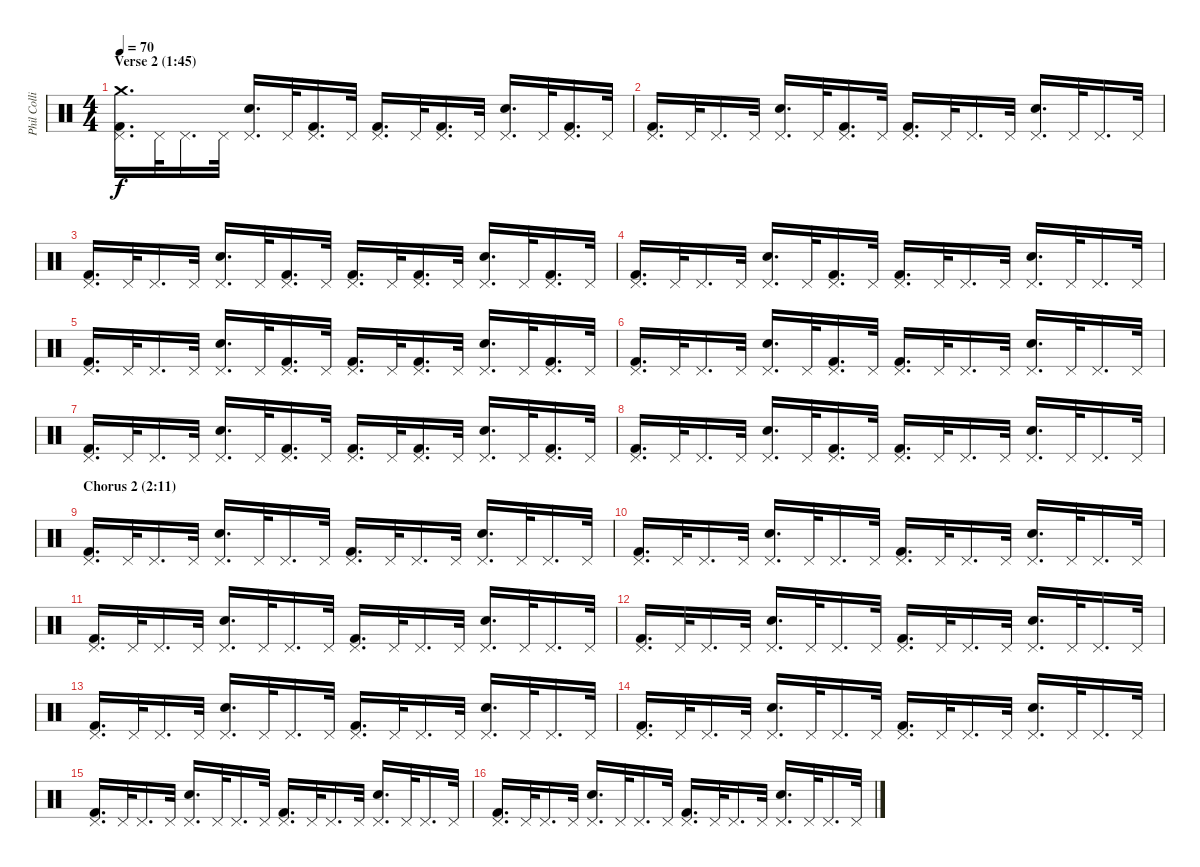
\track ("Phil Collins (drums)" "Phil Colli") {instrument percussion}
\staff {score}
\articulation defaults
\ts (4 4)
\section ("" "Verse 2 (1:45)")
\tempo 70
\clef neutral
\ks c
("Crash medium (hit)" "Pedal Hi-Hat (hit)" "Kick (hit) 2").16{d dy f} "Pedal Hi-Hat (hit)".32 "Pedal Hi-Hat (hit)".16{d} "Pedal Hi-Hat (hit)".32 ("Pedal Hi-Hat (hit)" "Electric Snare (hit)").16{d} "Pedal Hi-Hat (hit)".32 ("Pedal Hi-Hat (hit)" "Kick (hit) 2").16{d} "Pedal Hi-Hat (hit)".32 ("Pedal Hi-Hat (hit)" "Kick (hit) 2").16{d} "Pedal Hi-Hat (hit)".32 ("Pedal Hi-Hat (hit)" "Kick (hit) 2").16{d} "Pedal Hi-Hat (hit)".32 ("Pedal Hi-Hat (hit)" "Electric Snare (hit)").16{d} "Pedal Hi-Hat (hit)".32 ("Pedal Hi-Hat (hit)" "Kick (hit) 2").16{d} "Pedal Hi-Hat (hit)".32 |
("Pedal Hi-Hat (hit)" "Kick (hit) 2").16{d} "Pedal Hi-Hat (hit)".32 "Pedal Hi-Hat (hit)".16{d} "Pedal Hi-Hat (hit)".32 ("Pedal Hi-Hat (hit)" "Electric Snare (hit)").16{d} "Pedal Hi-Hat (hit)".32 ("Pedal Hi-Hat (hit)" "Kick (hit) 2").16{d} "Pedal Hi-Hat (hit)".32 ("Pedal Hi-Hat (hit)" "Kick (hit) 2").16{d} "Pedal Hi-Hat (hit)".32 "Pedal Hi-Hat (hit)".16{d} "Pedal Hi-Hat (hit)".32 ("Pedal Hi-Hat (hit)" "Electric Snare (hit)").16{d} "Pedal Hi-Hat (hit)".32 "Pedal Hi-Hat (hit)".16{d} "Pedal Hi-Hat (hit)".32 |
("Pedal Hi-Hat (hit)" "Kick (hit) 2").16{d} "Pedal Hi-Hat (hit)".32 "Pedal Hi-Hat (hit)".16{d} "Pedal Hi-Hat (hit)".32 ("Pedal Hi-Hat (hit)" "Electric Snare (hit)").16{d} "Pedal Hi-Hat (hit)".32 ("Pedal Hi-Hat (hit)" "Kick (hit) 2").16{d} "Pedal Hi-Hat (hit)".32 ("Pedal Hi-Hat (hit)" "Kick (hit) 2").16{d} "Pedal Hi-Hat (hit)".32 ("Pedal Hi-Hat (hit)" "Kick (hit) 2").16{d} "Pedal Hi-Hat (hit)".32 ("Pedal Hi-Hat (hit)" "Electric Snare (hit)").16{d} "Pedal Hi-Hat (hit)".32 ("Pedal Hi-Hat (hit)" "Kick (hit) 2").16{d} "Pedal Hi-Hat (hit)".32 |
("Pedal Hi-Hat (hit)" "Kick (hit) 2").16{d} "Pedal Hi-Hat (hit)".32 "Pedal Hi-Hat (hit)".16{d} "Pedal Hi-Hat (hit)".32 ("Pedal Hi-Hat (hit)" "Electric Snare (hit)").16{d} "Pedal Hi-Hat (hit)".32 ("Pedal Hi-Hat (hit)" "Kick (hit) 2").16{d} "Pedal Hi-Hat (hit)".32 ("Pedal Hi-Hat (hit)" "Kick (hit) 2").16{d} "Pedal Hi-Hat (hit)".32 "Pedal Hi-Hat (hit)".16{d} "Pedal Hi-Hat (hit)".32 ("Pedal Hi-Hat (hit)" "Electric Snare (hit)").16{d} "Pedal Hi-Hat (hit)".32 "Pedal Hi-Hat (hit)".16{d} "Pedal Hi-Hat (hit)".32 |
("Pedal Hi-Hat (hit)" "Kick (hit) 2").16{d} "Pedal Hi-Hat (hit)".32 "Pedal Hi-Hat (hit)".16{d} "Pedal Hi-Hat (hit)".32 ("Pedal Hi-Hat (hit)" "Electric Snare (hit)").16{d} "Pedal Hi-Hat (hit)".32 ("Pedal Hi-Hat (hit)" "Kick (hit) 2").16{d} "Pedal Hi-Hat (hit)".32 ("Pedal Hi-Hat (hit)" "Kick (hit) 2").16{d} "Pedal Hi-Hat (hit)".32 ("Pedal Hi-Hat (hit)" "Kick (hit) 2").16{d} "Pedal Hi-Hat (hit)".32 ("Pedal Hi-Hat (hit)" "Electric Snare (hit)").16{d} "Pedal Hi-Hat (hit)".32 ("Pedal Hi-Hat (hit)" "Kick (hit) 2").16{d} "Pedal Hi-Hat (hit)".32 |
("Pedal Hi-Hat (hit)" "Kick (hit) 2").16{d} "Pedal Hi-Hat (hit)".32 "Pedal Hi-Hat (hit)".16{d} "Pedal Hi-Hat (hit)".32 ("Pedal Hi-Hat (hit)" "Electric Snare (hit)").16{d} "Pedal Hi-Hat (hit)".32 ("Pedal Hi-Hat (hit)" "Kick (hit) 2").16{d} "Pedal Hi-Hat (hit)".32 ("Pedal Hi-Hat (hit)" "Kick (hit) 2").16{d} "Pedal Hi-Hat (hit)".32 "Pedal Hi-Hat (hit)".16{d} "Pedal Hi-Hat (hit)".32 ("Pedal Hi-Hat (hit)" "Electric Snare (hit)").16{d} "Pedal Hi-Hat (hit)".32 "Pedal Hi-Hat (hit)".16{d} "Pedal Hi-Hat (hit)".32 |
("Pedal Hi-Hat (hit)" "Kick (hit) 2").16{d} "Pedal Hi-Hat (hit)".32 "Pedal Hi-Hat (hit)".16{d} "Pedal Hi-Hat (hit)".32 ("Pedal Hi-Hat (hit)" "Electric Snare (hit)").16{d} "Pedal Hi-Hat (hit)".32 ("Pedal Hi-Hat (hit)" "Kick (hit) 2").16{d} "Pedal Hi-Hat (hit)".32 ("Pedal Hi-Hat (hit)" "Kick (hit) 2").16{d} "Pedal Hi-Hat (hit)".32 ("Pedal Hi-Hat (hit)" "Kick (hit) 2").16{d} "Pedal Hi-Hat (hit)".32 ("Pedal Hi-Hat (hit)" "Electric Snare (hit)").16{d} "Pedal Hi-Hat (hit)".32 ("Pedal Hi-Hat (hit)" "Kick (hit) 2").16{d} "Pedal Hi-Hat (hit)".32 |
("Pedal Hi-Hat (hit)" "Kick (hit) 2").16{d} "Pedal Hi-Hat (hit)".32 "Pedal Hi-Hat (hit)".16{d} "Pedal Hi-Hat (hit)".32 ("Pedal Hi-Hat (hit)" "Electric Snare (hit)").16{d} "Pedal Hi-Hat (hit)".32 ("Pedal Hi-Hat (hit)" "Kick (hit) 2").16{d} "Pedal Hi-Hat (hit)".32 ("Pedal Hi-Hat (hit)" "Kick (hit) 2").16{d} "Pedal Hi-Hat (hit)".32 "Pedal Hi-Hat (hit)".16{d} "Pedal Hi-Hat (hit)".32 ("Pedal Hi-Hat (hit)" "Electric Snare (hit)").16{d} "Pedal Hi-Hat (hit)".32 "Pedal Hi-Hat (hit)".16{d} "Pedal Hi-Hat (hit)".32 |
\section ("" "Chorus 2 (2:11)")
("Pedal Hi-Hat (hit)" "Kick (hit) 2").16{d} "Pedal Hi-Hat (hit)".32 "Pedal Hi-Hat (hit)".16{d} "Pedal Hi-Hat (hit)".32 ("Pedal Hi-Hat (hit)" "Electric Snare (hit)").16{d} "Pedal Hi-Hat (hit)".32 "Pedal Hi-Hat (hit)".16{d} "Pedal Hi-Hat (hit)".32 ("Pedal Hi-Hat (hit)" "Kick (hit) 2").16{d} "Pedal Hi-Hat (hit)".32 "Pedal Hi-Hat (hit)".16{d} "Pedal Hi-Hat (hit)".32 ("Pedal Hi-Hat (hit)" "Electric Snare (hit)").16{d} "Pedal Hi-Hat (hit)".32 "Pedal Hi-Hat (hit)".16{d} "Pedal Hi-Hat (hit)".32 |
("Pedal Hi-Hat (hit)" "Kick (hit) 2").16{d} "Pedal Hi-Hat (hit)".32 "Pedal Hi-Hat (hit)".16{d} "Pedal Hi-Hat (hit)".32 ("Pedal Hi-Hat (hit)" "Electric Snare (hit)").16{d} "Pedal Hi-Hat (hit)".32 "Pedal Hi-Hat (hit)".16{d} "Pedal Hi-Hat (hit)".32 ("Pedal Hi-Hat (hit)" "Kick (hit) 2").16{d} "Pedal Hi-Hat (hit)".32 "Pedal Hi-Hat (hit)".16{d} "Pedal Hi-Hat (hit)".32 ("Pedal Hi-Hat (hit)" "Electric Snare (hit)").16{d} "Pedal Hi-Hat (hit)".32 "Pedal Hi-Hat (hit)".16{d} "Pedal Hi-Hat (hit)".32 |
("Pedal Hi-Hat (hit)" "Kick (hit) 2").16{d} "Pedal Hi-Hat (hit)".32 "Pedal Hi-Hat (hit)".16{d} "Pedal Hi-Hat (hit)".32 ("Pedal Hi-Hat (hit)" "Electric Snare (hit)").16{d} "Pedal Hi-Hat (hit)".32 "Pedal Hi-Hat (hit)".16{d} "Pedal Hi-Hat (hit)".32 ("Pedal Hi-Hat (hit)" "Kick (hit) 2").16{d} "Pedal Hi-Hat (hit)".32 "Pedal Hi-Hat (hit)".16{d} "Pedal Hi-Hat (hit)".32 ("Pedal Hi-Hat (hit)" "Electric Snare (hit)").16{d} "Pedal Hi-Hat (hit)".32 "Pedal Hi-Hat (hit)".16{d} "Pedal Hi-Hat (hit)".32 |
("Pedal Hi-Hat (hit)" "Kick (hit) 2").16{d} "Pedal Hi-Hat (hit)".32 "Pedal Hi-Hat (hit)".16{d} "Pedal Hi-Hat (hit)".32 ("Pedal Hi-Hat (hit)" "Electric Snare (hit)").16{d} "Pedal Hi-Hat (hit)".32 "Pedal Hi-Hat (hit)".16{d} "Pedal Hi-Hat (hit)".32 ("Pedal Hi-Hat (hit)" "Kick (hit) 2").16{d} "Pedal Hi-Hat (hit)".32 "Pedal Hi-Hat (hit)".16{d} "Pedal Hi-Hat (hit)".32 ("Pedal Hi-Hat (hit)" "Electric Snare (hit)").16{d} "Pedal Hi-Hat (hit)".32 "Pedal Hi-Hat (hit)".16{d} "Pedal Hi-Hat (hit)".32 |
("Pedal Hi-Hat (hit)" "Kick (hit) 2").16{d} "Pedal Hi-Hat (hit)".32 "Pedal Hi-Hat (hit)".16{d} "Pedal Hi-Hat (hit)".32 ("Pedal Hi-Hat (hit)" "Electric Snare (hit)").16{d} "Pedal Hi-Hat (hit)".32 "Pedal Hi-Hat (hit)".16{d} "Pedal Hi-Hat (hit)".32 ("Pedal Hi-Hat (hit)" "Kick (hit) 2").16{d} "Pedal Hi-Hat (hit)".32 "Pedal Hi-Hat (hit)".16{d} "Pedal Hi-Hat (hit)".32 ("Pedal Hi-Hat (hit)" "Electric Snare (hit)").16{d} "Pedal Hi-Hat (hit)".32 "Pedal Hi-Hat (hit)".16{d} "Pedal Hi-Hat (hit)".32 |
("Pedal Hi-Hat (hit)" "Kick (hit) 2").16{d} "Pedal Hi-Hat (hit)".32 "Pedal Hi-Hat (hit)".16{d} "Pedal Hi-Hat (hit)".32 ("Pedal Hi-Hat (hit)" "Electric Snare (hit)").16{d} "Pedal Hi-Hat (hit)".32 "Pedal Hi-Hat (hit)".16{d} "Pedal Hi-Hat (hit)".32 ("Pedal Hi-Hat (hit)" "Kick (hit) 2").16{d} "Pedal Hi-Hat (hit)".32 "Pedal Hi-Hat (hit)".16{d} "Pedal Hi-Hat (hit)".32 ("Pedal Hi-Hat (hit)" "Electric Snare (hit)").16{d} "Pedal Hi-Hat (hit)".32 "Pedal Hi-Hat (hit)".16{d} "Pedal Hi-Hat (hit)".32 |
("Pedal Hi-Hat (hit)" "Kick (hit) 2").16{d} "Pedal Hi-Hat (hit)".32 "Pedal Hi-Hat (hit)".16{d} "Pedal Hi-Hat (hit)".32 ("Pedal Hi-Hat (hit)" "Electric Snare (hit)").16{d} "Pedal Hi-Hat (hit)".32 "Pedal Hi-Hat (hit)".16{d} "Pedal Hi-Hat (hit)".32 ("Pedal Hi-Hat (hit)" "Kick (hit) 2").16{d} "Pedal Hi-Hat (hit)".32 "Pedal Hi-Hat (hit)".16{d} "Pedal Hi-Hat (hit)".32 ("Pedal Hi-Hat (hit)" "Electric Snare (hit)").16{d} "Pedal Hi-Hat (hit)".32 "Pedal Hi-Hat (hit)".16{d} "Pedal Hi-Hat (hit)".32 |
("Pedal Hi-Hat (hit)" "Kick (hit) 2").16{d} "Pedal Hi-Hat (hit)".32 "Pedal Hi-Hat (hit)".16{d} "Pedal Hi-Hat (hit)".32 ("Pedal Hi-Hat (hit)" "Electric Snare (hit)").16{d} "Pedal Hi-Hat (hit)".32 "Pedal Hi-Hat (hit)".16{d} "Pedal Hi-Hat (hit)".32 ("Pedal Hi-Hat (hit)" "Kick (hit) 2").16{d} "Pedal Hi-Hat (hit)".32 "Pedal Hi-Hat (hit)".16{d} "Pedal Hi-Hat (hit)".32 ("Pedal Hi-Hat (hit)" "Electric Snare (hit)").16{d} "Pedal Hi-Hat (hit)".32 "Pedal Hi-Hat (hit)".16{d} "Pedal Hi-Hat (hit)".32
